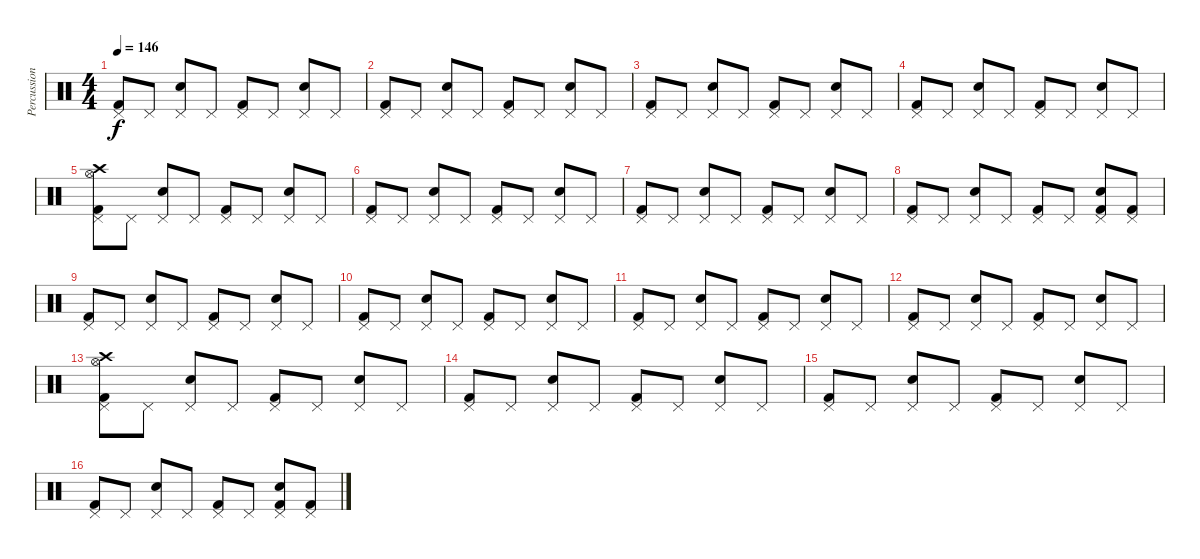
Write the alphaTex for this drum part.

\track ("Percussion" "Percussion") {instrument percussion}
\staff {score}
\articulation defaults
\ts (4 4)
\tempo 146
\clef neutral
\ks c
("Kick (hit) 2" "Pedal Hi-Hat (hit)").8{dy f} "Pedal Hi-Hat (hit)".8 ("Electric Snare (hit)" "Pedal Hi-Hat (hit)").8 "Pedal Hi-Hat (hit)".8 ("Kick (hit) 2" "Pedal Hi-Hat (hit)").8 "Pedal Hi-Hat (hit)".8 ("Electric Snare (hit)" "Pedal Hi-Hat (hit)").8 "Pedal Hi-Hat (hit)".8 |
("Kick (hit) 2" "Pedal Hi-Hat (hit)").8 "Pedal Hi-Hat (hit)".8 ("Electric Snare (hit)" "Pedal Hi-Hat (hit)").8 "Pedal Hi-Hat (hit)".8 ("Kick (hit) 2" "Pedal Hi-Hat (hit)").8 "Pedal Hi-Hat (hit)".8 ("Electric Snare (hit)" "Pedal Hi-Hat (hit)").8 "Pedal Hi-Hat (hit)".8 |
("Kick (hit) 2" "Pedal Hi-Hat (hit)").8 "Pedal Hi-Hat (hit)".8 ("Electric Snare (hit)" "Pedal Hi-Hat (hit)").8 "Pedal Hi-Hat (hit)".8 ("Kick (hit) 2" "Pedal Hi-Hat (hit)").8 "Pedal Hi-Hat (hit)".8 ("Electric Snare (hit)" "Pedal Hi-Hat (hit)").8 "Pedal Hi-Hat (hit)".8 |
("Kick (hit) 2" "Pedal Hi-Hat (hit)").8 "Pedal Hi-Hat (hit)".8 ("Electric Snare (hit)" "Pedal Hi-Hat (hit)").8 "Pedal Hi-Hat (hit)".8 ("Kick (hit) 2" "Pedal Hi-Hat (hit)").8 "Pedal Hi-Hat (hit)".8 ("Electric Snare (hit)" "Pedal Hi-Hat (hit)").8 "Pedal Hi-Hat (hit)".8 |
("Kick (hit) 2" "Pedal Hi-Hat (hit)" "Crash high (hit)" "Hi-Hat (open)").8 "Pedal Hi-Hat (hit)".8 ("Electric Snare (hit)" "Pedal Hi-Hat (hit)").8 "Pedal Hi-Hat (hit)".8 ("Kick (hit) 2" "Pedal Hi-Hat (hit)").8 "Pedal Hi-Hat (hit)".8 ("Electric Snare (hit)" "Pedal Hi-Hat (hit)").8 "Pedal Hi-Hat (hit)".8 |
("Kick (hit) 2" "Pedal Hi-Hat (hit)").8 "Pedal Hi-Hat (hit)".8 ("Electric Snare (hit)" "Pedal Hi-Hat (hit)").8 "Pedal Hi-Hat (hit)".8 ("Kick (hit) 2" "Pedal Hi-Hat (hit)").8 "Pedal Hi-Hat (hit)".8 ("Electric Snare (hit)" "Pedal Hi-Hat (hit)").8 "Pedal Hi-Hat (hit)".8 |
("Kick (hit) 2" "Pedal Hi-Hat (hit)").8 "Pedal Hi-Hat (hit)".8 ("Electric Snare (hit)" "Pedal Hi-Hat (hit)").8 "Pedal Hi-Hat (hit)".8 ("Kick (hit) 2" "Pedal Hi-Hat (hit)").8 "Pedal Hi-Hat (hit)".8 ("Electric Snare (hit)" "Pedal Hi-Hat (hit)").8 "Pedal Hi-Hat (hit)".8 |
("Kick (hit) 2" "Pedal Hi-Hat (hit)").8 "Pedal Hi-Hat (hit)".8 ("Electric Snare (hit)" "Pedal Hi-Hat (hit)").8 "Pedal Hi-Hat (hit)".8 ("Kick (hit) 2" "Pedal Hi-Hat (hit)").8 "Pedal Hi-Hat (hit)".8 ("Electric Snare (hit)" "Pedal Hi-Hat (hit)" "Kick (hit) 2").8 ("Pedal Hi-Hat (hit)" "Kick (hit) 2").8 |
("Kick (hit) 2" "Pedal Hi-Hat (hit)").8 "Pedal Hi-Hat (hit)".8 ("Electric Snare (hit)" "Pedal Hi-Hat (hit)").8 "Pedal Hi-Hat (hit)".8 ("Kick (hit) 2" "Pedal Hi-Hat (hit)").8 "Pedal Hi-Hat (hit)".8 ("Electric Snare (hit)" "Pedal Hi-Hat (hit)").8 "Pedal Hi-Hat (hit)".8 |
("Kick (hit) 2" "Pedal Hi-Hat (hit)").8 "Pedal Hi-Hat (hit)".8 ("Electric Snare (hit)" "Pedal Hi-Hat (hit)").8 "Pedal Hi-Hat (hit)".8 ("Kick (hit) 2" "Pedal Hi-Hat (hit)").8 "Pedal Hi-Hat (hit)".8 ("Electric Snare (hit)" "Pedal Hi-Hat (hit)").8 "Pedal Hi-Hat (hit)".8 |
("Kick (hit) 2" "Pedal Hi-Hat (hit)").8 "Pedal Hi-Hat (hit)".8 ("Electric Snare (hit)" "Pedal Hi-Hat (hit)").8 "Pedal Hi-Hat (hit)".8 ("Kick (hit) 2" "Pedal Hi-Hat (hit)").8 "Pedal Hi-Hat (hit)".8 ("Electric Snare (hit)" "Pedal Hi-Hat (hit)").8 "Pedal Hi-Hat (hit)".8 |
("Kick (hit) 2" "Pedal Hi-Hat (hit)").8 "Pedal Hi-Hat (hit)".8 ("Electric Snare (hit)" "Pedal Hi-Hat (hit)").8 "Pedal Hi-Hat (hit)".8 ("Kick (hit) 2" "Pedal Hi-Hat (hit)").8 "Pedal Hi-Hat (hit)".8 ("Electric Snare (hit)" "Pedal Hi-Hat (hit)").8 "Pedal Hi-Hat (hit)".8 |
("Kick (hit) 2" "Pedal Hi-Hat (hit)" "Crash high (hit)" "Hi-Hat (open)").8 "Pedal Hi-Hat (hit)".8 ("Electric Snare (hit)" "Pedal Hi-Hat (hit)").8 "Pedal Hi-Hat (hit)".8 ("Kick (hit) 2" "Pedal Hi-Hat (hit)").8 "Pedal Hi-Hat (hit)".8 ("Electric Snare (hit)" "Pedal Hi-Hat (hit)").8 "Pedal Hi-Hat (hit)".8 |
("Kick (hit) 2" "Pedal Hi-Hat (hit)").8 "Pedal Hi-Hat (hit)".8 ("Electric Snare (hit)" "Pedal Hi-Hat (hit)").8 "Pedal Hi-Hat (hit)".8 ("Kick (hit) 2" "Pedal Hi-Hat (hit)").8 "Pedal Hi-Hat (hit)".8 ("Electric Snare (hit)" "Pedal Hi-Hat (hit)").8 "Pedal Hi-Hat (hit)".8 |
("Kick (hit) 2" "Pedal Hi-Hat (hit)").8 "Pedal Hi-Hat (hit)".8 ("Electric Snare (hit)" "Pedal Hi-Hat (hit)").8 "Pedal Hi-Hat (hit)".8 ("Kick (hit) 2" "Pedal Hi-Hat (hit)").8 "Pedal Hi-Hat (hit)".8 ("Electric Snare (hit)" "Pedal Hi-Hat (hit)").8 "Pedal Hi-Hat (hit)".8 |
("Kick (hit) 2" "Pedal Hi-Hat (hit)").8 "Pedal Hi-Hat (hit)".8 ("Electric Snare (hit)" "Pedal Hi-Hat (hit)").8 "Pedal Hi-Hat (hit)".8 ("Kick (hit) 2" "Pedal Hi-Hat (hit)").8 "Pedal Hi-Hat (hit)".8 ("Electric Snare (hit)" "Pedal Hi-Hat (hit)" "Kick (hit) 2").8 ("Pedal Hi-Hat (hit)" "Kick (hit) 2").8
